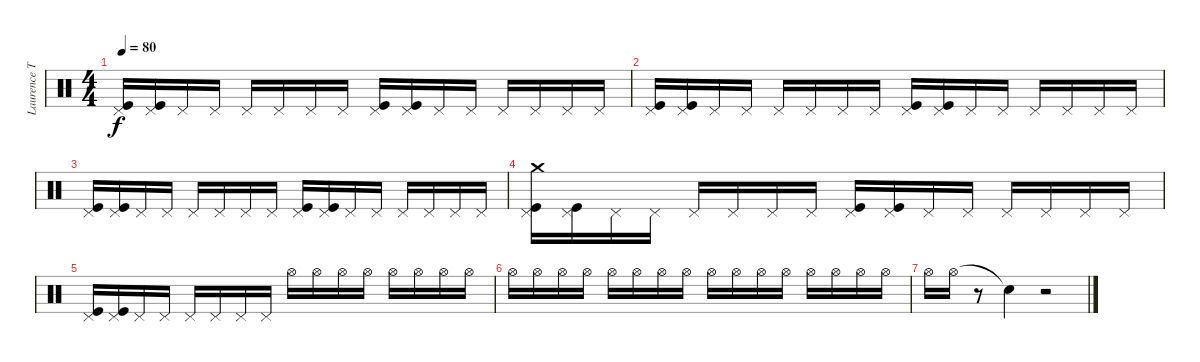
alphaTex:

\track ("Laurence Tolhurst (drums)" "Laurence T") {instrument percussion}
\staff {score}
\articulation defaults
\ts (4 4)
\tempo 80
\clef neutral
\ks c
("Pedal Hi-Hat (hit)" "Kick (hit)").16{dy f} ("Pedal Hi-Hat (hit)" "Kick (hit)").16 "Pedal Hi-Hat (hit)".16 "Pedal Hi-Hat (hit)".16 "Pedal Hi-Hat (hit)".16 "Pedal Hi-Hat (hit)".16 "Pedal Hi-Hat (hit)".16 "Pedal Hi-Hat (hit)".16 ("Pedal Hi-Hat (hit)" "Kick (hit)").16 ("Pedal Hi-Hat (hit)" "Kick (hit)").16 "Pedal Hi-Hat (hit)".16 "Pedal Hi-Hat (hit)".16 "Pedal Hi-Hat (hit)".16 "Pedal Hi-Hat (hit)".16 "Pedal Hi-Hat (hit)".16 "Pedal Hi-Hat (hit)".16 |
("Pedal Hi-Hat (hit)" "Kick (hit)").16 ("Pedal Hi-Hat (hit)" "Kick (hit)").16 "Pedal Hi-Hat (hit)".16 "Pedal Hi-Hat (hit)".16 "Pedal Hi-Hat (hit)".16 "Pedal Hi-Hat (hit)".16 "Pedal Hi-Hat (hit)".16 "Pedal Hi-Hat (hit)".16 ("Pedal Hi-Hat (hit)" "Kick (hit)").16 ("Pedal Hi-Hat (hit)" "Kick (hit)").16 "Pedal Hi-Hat (hit)".16 "Pedal Hi-Hat (hit)".16 "Pedal Hi-Hat (hit)".16 "Pedal Hi-Hat (hit)".16 "Pedal Hi-Hat (hit)".16 "Pedal Hi-Hat (hit)".16 |
("Pedal Hi-Hat (hit)" "Kick (hit)").16 ("Pedal Hi-Hat (hit)" "Kick (hit)").16 "Pedal Hi-Hat (hit)".16 "Pedal Hi-Hat (hit)".16 "Pedal Hi-Hat (hit)".16 "Pedal Hi-Hat (hit)".16 "Pedal Hi-Hat (hit)".16 "Pedal Hi-Hat (hit)".16 ("Pedal Hi-Hat (hit)" "Kick (hit)").16 ("Pedal Hi-Hat (hit)" "Kick (hit)").16 "Pedal Hi-Hat (hit)".16 "Pedal Hi-Hat (hit)".16 "Pedal Hi-Hat (hit)".16 "Pedal Hi-Hat (hit)".16 "Pedal Hi-Hat (hit)".16 "Pedal Hi-Hat (hit)".16 |
("Pedal Hi-Hat (hit)" "Kick (hit)" "Crash medium (hit)").16 ("Pedal Hi-Hat (hit)" "Kick (hit)").16 "Pedal Hi-Hat (hit)".16 "Pedal Hi-Hat (hit)".16 "Pedal Hi-Hat (hit)".16 "Pedal Hi-Hat (hit)".16 "Pedal Hi-Hat (hit)".16 "Pedal Hi-Hat (hit)".16 ("Pedal Hi-Hat (hit)" "Kick (hit)").16 ("Pedal Hi-Hat (hit)" "Kick (hit)").16 "Pedal Hi-Hat (hit)".16 "Pedal Hi-Hat (hit)".16 "Pedal Hi-Hat (hit)".16 "Pedal Hi-Hat (hit)".16 "Pedal Hi-Hat (hit)".16 "Pedal Hi-Hat (hit)".16 |
("Pedal Hi-Hat (hit)" "Kick (hit)").16 ("Pedal Hi-Hat (hit)" "Kick (hit)").16 "Pedal Hi-Hat (hit)".16 "Pedal Hi-Hat (hit)".16 "Pedal Hi-Hat (hit)".16 "Pedal Hi-Hat (hit)".16 "Pedal Hi-Hat (hit)".16 "Pedal Hi-Hat (hit)".16 "Hi-Hat (open)".16 "Hi-Hat (open)".16 "Hi-Hat (open)".16 "Hi-Hat (open)".16 "Hi-Hat (open)".16 "Hi-Hat (open)".16 "Hi-Hat (open)".16 "Hi-Hat (open)".16 |
"Hi-Hat (open)".16 "Hi-Hat (open)".16 "Hi-Hat (open)".16 "Hi-Hat (open)".16 "Hi-Hat (open)".16 "Hi-Hat (open)".16 "Hi-Hat (open)".16 "Hi-Hat (open)".16 "Hi-Hat (open)".16 "Hi-Hat (open)".16 "Hi-Hat (open)".16 "Hi-Hat (open)".16 "Hi-Hat (open)".16 "Hi-Hat (open)".16 "Hi-Hat (open)".16 "Hi-Hat (open)".16 |
"Hi-Hat (open)".16 "Hi-Hat (open)".16 r.8 "Snare (hit)"{t}.4 r.2
